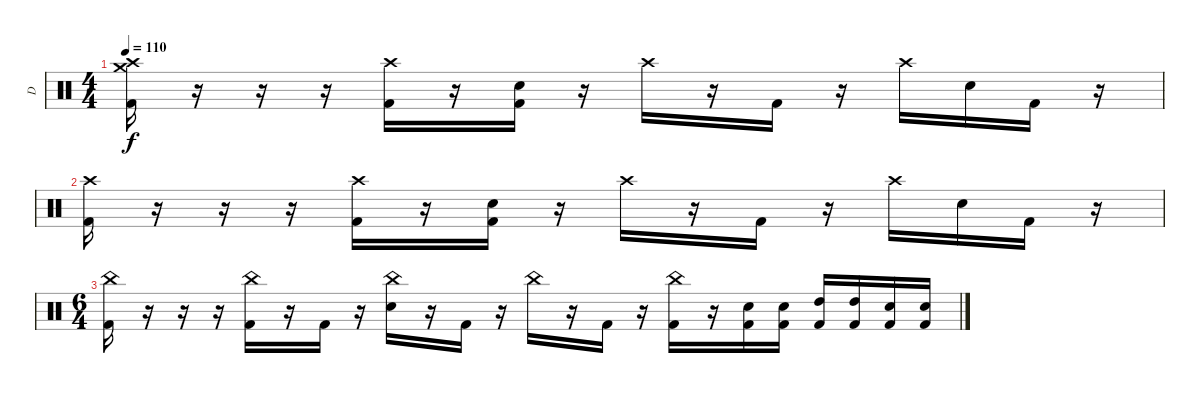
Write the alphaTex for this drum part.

\track ("D" "D") {instrument percussion}
\staff {score}
\articulation defaults
\ts (4 4)
\tempo 110
\clef neutral
\ks c
("Crash high (hit)" "Crash medium (hit)" "Kick (hit) 2").16{dy f} r.16 r.16 r.16 ("Crash high (hit)" "Kick (hit) 2").16 r.16 ("Electric Snare (hit)" "Kick (hit) 2").16 r.16 "Crash high (hit)".16 r.16 "Kick (hit) 2".16 r.16 "Crash high (hit)".16 "Electric Snare (hit)".16 "Kick (hit) 2".16 r.16 |
("Crash high (hit)" "Kick (hit) 2").16 r.16 r.16 r.16 ("Crash high (hit)" "Kick (hit) 2").16 r.16 ("Electric Snare (hit)" "Kick (hit) 2").16 r.16 "Crash high (hit)".16 r.16 "Kick (hit) 2".16 r.16 "Crash high (hit)".16 "Electric Snare (hit)".16 "Kick (hit) 2".16 r.16 |
\ts (6 4)
("China (hit)" "Kick (hit) 2").16 r.16 r.16 r.16 ("China (hit)" "Kick (hit) 2").16 r.16 "Kick (hit) 2".16 r.16 ("China (hit)" "Electric Snare (hit)").16 r.16 "Kick (hit) 2".16 r.16 "China (hit)".16 r.16 "Kick (hit) 2".16 r.16 ("China (hit)" "Kick (hit) 2").16 r.16 ("Electric Snare (hit)" "Kick (hit) 2").16 ("Electric Snare (hit)" "Kick (hit) 2").16 ("High Tom (hit)" "Kick (hit) 2").16 ("High Tom (hit)" "Kick (hit) 2").16 ("Electric Snare (hit)" "Kick (hit) 2").16 ("Electric Snare (hit)" "Kick (hit) 2").16
